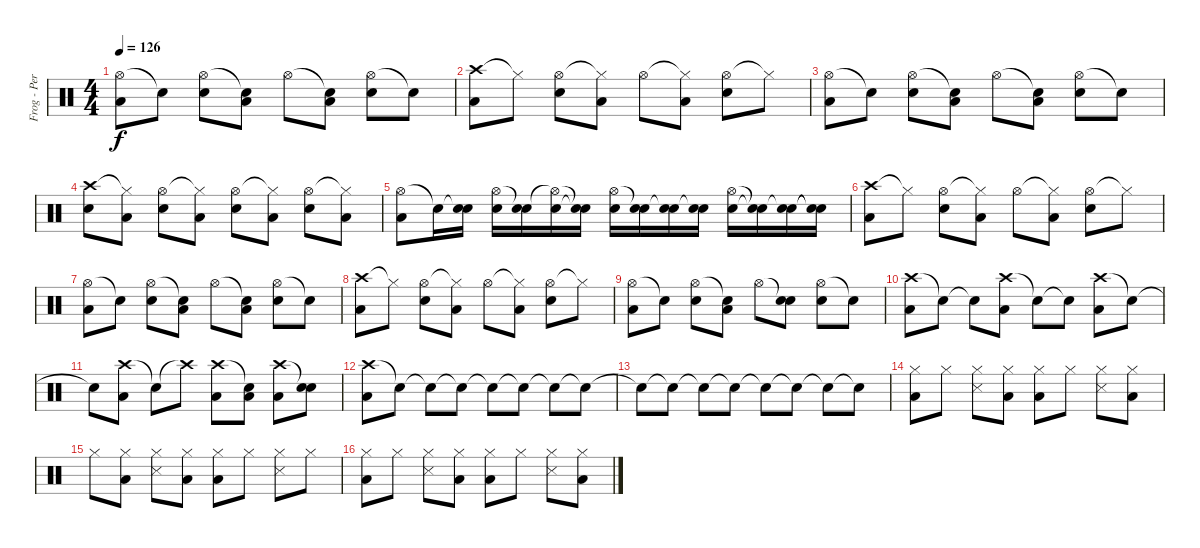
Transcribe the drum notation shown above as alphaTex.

\track ("Frog - Percussions" "Frog - Per") {instrument percussion}
\staff {score}
\articulation defaults
\ts (4 4)
\tempo 126
\clef neutral
\ks c
("Hi-Hat (open)" "Low Floor Tom (hit)").8{dy f} "Snare (hit)"{t}.8 ("Hi-Hat (open)" "Snare (hit) 2").8 ("Snare (hit)"{t} "Low Floor Tom (hit)").8 "Hi-Hat (open)".8 ("Snare (hit)"{t} "Low Floor Tom (hit)").8 ("Hi-Hat (open)" "Snare (hit) 2").8 "Snare (hit)"{t}.8 |
("Crash high (hit)" "Low Floor Tom (hit)").8 "Hi-Hat (closed)"{t}.8 ("Hi-Hat (open)" "Snare (hit) 2").8 ("Hi-Hat (closed)"{t} "Low Floor Tom (hit)").8 "Hi-Hat (open)".8 ("Hi-Hat (closed)"{t} "Low Floor Tom (hit)").8 ("Hi-Hat (open)" "Snare (hit) 2").8 "Hi-Hat (closed)"{t}.8 |
("Hi-Hat (open)" "Low Floor Tom (hit)").8 "Snare (hit)"{t}.8 ("Hi-Hat (open)" "Snare (hit) 2").8 ("Snare (hit)"{t} "Low Floor Tom (hit)").8 "Hi-Hat (open)".8 ("Snare (hit)"{t} "Low Floor Tom (hit)").8 ("Hi-Hat (open)" "Snare (hit) 2").8 "Snare (hit)"{t}.8 |
("Crash high (hit)" "Snare (hit) 2").8 ("Hi-Hat (closed)"{t} "Low Floor Tom (hit)").8 ("Hi-Hat (open)" "Snare (hit) 2").8 ("Hi-Hat (closed)"{t} "Low Floor Tom (hit)").8 ("Hi-Hat (open)" "Snare (hit) 2").8 ("Hi-Hat (closed)"{t} "Low Floor Tom (hit)").8 ("Hi-Hat (open)" "Snare (hit) 2").8 ("Hi-Hat (closed)"{t} "Low Floor Tom (hit)").8 |
("Hi-Hat (open)" "Low Floor Tom (hit)").8 "Snare (hit)"{t}.16 ("Snare (hit)"{t} "Snare (hit) 2").16 ("Hi-Hat (open)" "Snare (hit) 2").16 ("Snare (hit)"{t} "Snare (hit) 2").16 ("Hi-Hat (open)"{t} "Snare (hit) 2").16 ("Snare (hit)"{t} "Snare (hit) 2"{t}).16 ("Hi-Hat (open)" "Snare (hit) 2").16 ("Snare (hit)"{t} "Snare (hit) 2").16 ("Snare (hit)"{t} "Snare (hit) 2").16 ("Snare (hit)"{t} "Snare (hit) 2").16 ("Hi-Hat (open)" "Snare (hit) 2").16 ("Snare (hit)"{t} "Snare (hit)"{t}).16 ("Snare (hit)"{t} "Snare (hit) 2").16 ("Snare (hit)"{t} "Snare (hit)"{t}).16 |
("Crash high (hit)" "Low Floor Tom (hit)").8 "Hi-Hat (closed)"{t}.8 ("Hi-Hat (open)" "Snare (hit) 2").8 ("Hi-Hat (closed)"{t} "Low Floor Tom (hit)").8 "Hi-Hat (open)".8 ("Hi-Hat (closed)"{t} "Low Floor Tom (hit)").8 ("Hi-Hat (open)" "Snare (hit) 2").8 "Hi-Hat (closed)"{t}.8 |
("Hi-Hat (open)" "Low Floor Tom (hit)").8 "Snare (hit)"{t}.8 ("Hi-Hat (open)" "Snare (hit) 2").8 ("Snare (hit)"{t} "Low Floor Tom (hit)").8 "Hi-Hat (open)".8 ("Snare (hit)"{t} "Low Floor Tom (hit)").8 ("Hi-Hat (open)" "Snare (hit) 2").8 "Snare (hit)"{t}.8 |
("Crash high (hit)" "Low Floor Tom (hit)").8 "Hi-Hat (closed)"{t}.8 ("Hi-Hat (open)" "Snare (hit) 2").8 ("Hi-Hat (closed)"{t} "Low Floor Tom (hit)").8 "Hi-Hat (open)".8 ("Hi-Hat (closed)"{t} "Low Floor Tom (hit)").8 ("Hi-Hat (open)" "Snare (hit) 2").8 "Hi-Hat (closed)"{t}.8 |
("Hi-Hat (open)" "Low Floor Tom (hit)").8 "Snare (hit)"{t}.8 ("Hi-Hat (open)" "Snare (hit) 2").8 ("Snare (hit)"{t} "Low Floor Tom (hit)").8 "Hi-Hat (open)".8 ("Snare (hit)"{t} "Snare (hit) 2").8 ("Hi-Hat (open)" "Snare (hit) 2").8 "Snare (hit)"{t}.8 |
("Crash high (hit)" "Low Floor Tom (hit)").8 "Snare (hit)"{t}.8 "Snare (hit)"{t}.8 ("Crash high (hit)" "Low Floor Tom (hit)").8 "Snare (hit)"{t}.8 "Snare (hit)"{t}.8 ("Crash high (hit)" "Low Floor Tom (hit)").8 "Snare (hit)"{t}.8 |
"Snare (hit)"{t}.8 ("Crash high (hit)" "Low Floor Tom (hit)").8 "Snare (hit)"{t}.8 "Crash high (hit)"{t}.8 ("Crash high (hit)" "Low Floor Tom (hit)").8 ("Snare (hit)"{t} "Low Floor Tom (hit)").8 ("Crash high (hit)" "Low Floor Tom (hit)").8 ("Snare (hit)"{t} "Snare (hit) 2").8 |
("Crash high (hit)" "Low Floor Tom (hit)").8 "Snare (hit)"{t}.8 "Snare (hit)"{t}.8 "Snare (hit)"{t}.8 "Snare (hit)"{t}.8 "Snare (hit)"{t}.8 "Snare (hit)"{t}.8 "Snare (hit)"{t}.8 |
"Snare (hit)"{t}.8 "Snare (hit)"{t}.8 "Snare (hit)"{t}.8 "Snare (hit)"{t}.8 "Snare (hit)"{t}.8 "Snare (hit)"{t}.8 "Snare (hit)"{t}.8 "Snare (hit)"{t}.8 |
("Hi-Hat (closed)" "Low Floor Tom (hit)").8 "Hi-Hat (closed)".8 ("Hi-Hat (closed)" "Snare (side stick) 3").8 ("Hi-Hat (closed)" "Low Floor Tom (hit)").8 ("Hi-Hat (closed)" "Low Floor Tom (hit)").8 "Hi-Hat (closed)".8 ("Hi-Hat (closed)" "Snare (side stick) 3").8 ("Hi-Hat (closed)" "Low Floor Tom (hit)").8 |
"Hi-Hat (closed)".8 ("Hi-Hat (closed)" "Low Floor Tom (hit)").8 ("Hi-Hat (closed)" "Snare (side stick) 3").8 ("Hi-Hat (closed)" "Low Floor Tom (hit)").8 ("Hi-Hat (closed)" "Low Floor Tom (hit)").8 "Hi-Hat (closed)".8 ("Hi-Hat (closed)" "Snare (side stick) 3").8 "Hi-Hat (closed)".8 |
("Hi-Hat (closed)" "Low Floor Tom (hit)").8 "Hi-Hat (closed)".8 ("Hi-Hat (closed)" "Snare (side stick) 3").8 ("Hi-Hat (closed)" "Low Floor Tom (hit)").8 ("Hi-Hat (closed)" "Low Floor Tom (hit)").8 "Hi-Hat (closed)".8 ("Hi-Hat (closed)" "Snare (side stick) 3").8 ("Hi-Hat (closed)" "Low Floor Tom (hit)").8
